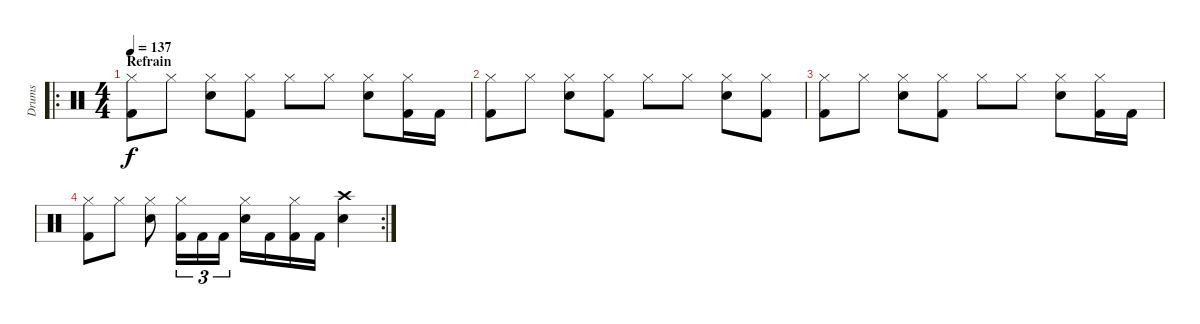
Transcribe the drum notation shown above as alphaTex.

\track ("Drums" "Drums") {instrument percussion}
\staff {score}
\articulation defaults
\ro
\ts (4 4)
\section ("" "Refrain")
\tempo 137
\clef neutral
\ks c
("Hi-Hat (closed)" "Kick (hit) 2").8{dy f} "Hi-Hat (closed)".8 ("Hi-Hat (closed)" "Electric Snare (hit)").8 ("Hi-Hat (closed)" "Kick (hit) 2").8 "Hi-Hat (closed)".8 "Hi-Hat (closed)".8 ("Hi-Hat (closed)" "Electric Snare (hit)").8 ("Hi-Hat (closed)" "Kick (hit) 2").16 "Kick (hit) 2".16 |
("Hi-Hat (closed)" "Kick (hit) 2").8 "Hi-Hat (closed)".8 ("Hi-Hat (closed)" "Electric Snare (hit)").8 ("Hi-Hat (closed)" "Kick (hit) 2").8 "Hi-Hat (closed)".8 "Hi-Hat (closed)".8 ("Hi-Hat (closed)" "Electric Snare (hit)").8 ("Hi-Hat (closed)" "Kick (hit) 2").8 |
("Hi-Hat (closed)" "Kick (hit) 2").8 "Hi-Hat (closed)".8 ("Hi-Hat (closed)" "Electric Snare (hit)").8 ("Hi-Hat (closed)" "Kick (hit) 2").8 "Hi-Hat (closed)".8 "Hi-Hat (closed)".8 ("Hi-Hat (closed)" "Electric Snare (hit)").8 ("Hi-Hat (closed)" "Kick (hit) 2").16 "Kick (hit) 2".16 |
\rc 2
("Hi-Hat (closed)" "Kick (hit) 2").8 "Hi-Hat (closed)".8 ("Hi-Hat (closed)" "Electric Snare (hit)").8 ("Hi-Hat (closed)" "Kick (hit) 2").16{tu (3 2)} "Kick (hit) 2".16{tu (3 2)} "Kick (hit) 2".16{tu (3 2)} ("Hi-Hat (closed)" "Electric Snare (hit)").16 "Kick (hit) 2".16 ("Hi-Hat (closed)" "Kick (hit) 2").16 "Kick (hit) 2".16 ("Crash high (hit)" "Electric Snare (hit)").4
